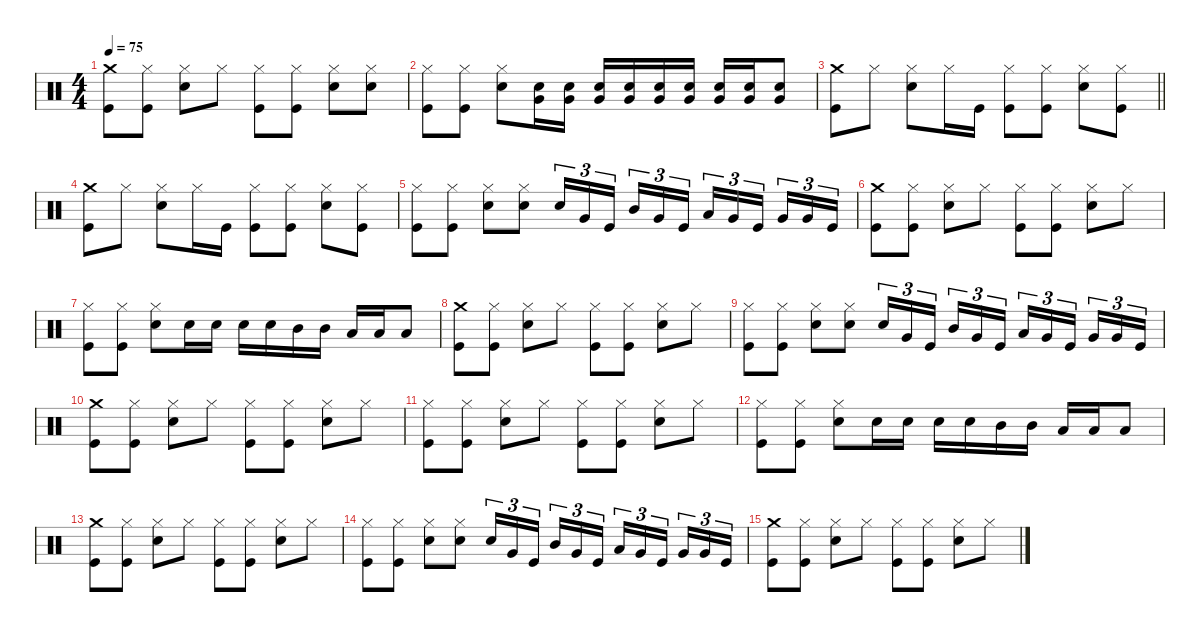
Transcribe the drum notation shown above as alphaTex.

\defaultSystemsLayout 4
\hideDynamics
\bracketExtendMode nobrackets
\singleTrackTrackNamePolicy hidden
\multiTrackTrackNamePolicy hidden
\otherSystemsTrackNameOrientation horizontal
\track ("John Bonham (Bateria)" "drm.") {instrument percussion}
\staff {score}
\articulation defaults
\ts (4 4)
\tempo 75
\clef neutral
\ks c
("Crash medium (hit)" "Kick (hit)").8{dy fff beam Down} ("Hi-Hat (closed)" "Kick (hit)").8{beam Down} ("Hi-Hat (closed)" "Snare (hit) 2").8{beam Down} "Hi-Hat (closed)".8{beam Down} ("Hi-Hat (closed)" "Kick (hit)").8{beam Down} ("Hi-Hat (closed)" "Kick (hit)").8{beam Down} ("Hi-Hat (closed)" "Snare (hit) 2").8{beam Down} ("Hi-Hat (closed)" "Snare (hit) 2").8{beam Down} |
("Hi-Hat (closed)" "Kick (hit)").8{beam Down} ("Hi-Hat (closed)" "Kick (hit)").8{beam Down} ("Hi-Hat (closed)" "Snare (hit) 2").8{beam Down} ("Snare (hit) 2" "Very Low Tom (hit)").16{beam Down} ("Snare (hit) 2" "Very Low Tom (hit)").16{beam Down} ("Snare (hit) 2" "Very Low Tom (hit)").16{beam Up} ("Snare (hit) 2" "Very Low Tom (hit)").16{beam Up} ("Snare (hit) 2" "Very Low Tom (hit)").16{beam Up} ("Snare (hit) 2" "Very Low Tom (hit)").16{beam Up} ("Snare (hit) 2" "Very Low Tom (hit)").16{beam Up} ("Snare (hit) 2" "Very Low Tom (hit)").16{beam Up} ("Snare (hit) 2" "Very Low Tom (hit)").8{beam Up} |
\barLineRight lightlight
("Crash medium (hit)" "Kick (hit)").8{beam Down} "Hi-Hat (closed)".8{beam Down} ("Hi-Hat (closed)" "Snare (hit) 2").8{beam Down} "Hi-Hat (closed)".16{beam Down} "Kick (hit)".16{beam Down} ("Hi-Hat (closed)" "Kick (hit)").8{beam Down} ("Hi-Hat (closed)" "Kick (hit)").8{beam Down} ("Hi-Hat (closed)" "Snare (hit) 2").8{beam Down} ("Hi-Hat (closed)" "Kick (hit)").8{beam Down} |
("Crash medium (hit)" "Kick (hit)").8{beam Down} "Hi-Hat (closed)".8{beam Down} ("Hi-Hat (closed)" "Snare (hit) 2").8{beam Down} "Hi-Hat (closed)".16{beam Down} "Kick (hit)".16{beam Down} ("Hi-Hat (closed)" "Kick (hit)").8{beam Down} ("Hi-Hat (closed)" "Kick (hit)").8{beam Down} ("Hi-Hat (closed)" "Snare (hit) 2").8{beam Down} ("Hi-Hat (closed)" "Kick (hit)").8{beam Down} |
("Hi-Hat (closed)" "Kick (hit)").8{beam Down} ("Hi-Hat (closed)" "Kick (hit)").8{beam Down} ("Hi-Hat (closed)" "Snare (hit) 2").8{beam Down} ("Hi-Hat (closed)" "Snare (hit) 2").8{beam Down} "Snare (hit) 2".16{tu (3 2) beam Up} "Very Low Tom (hit)".16{tu (3 2) beam Up} "Kick (hit)".16{tu (3 2) beam Up} "Mid Tom (hit)".16{tu (3 2) beam Up} "Very Low Tom (hit)".16{tu (3 2) beam Up} "Kick (hit)".16{tu (3 2) beam Up} "Low Tom (hit)".16{tu (3 2) beam Up} "Very Low Tom (hit)".16{tu (3 2) beam Up} "Kick (hit)".16{tu (3 2) beam Up} "Very Low Tom (hit)".16{tu (3 2) beam Up} "Very Low Tom (hit)".16{tu (3 2) beam Up} "Kick (hit)".16{tu (3 2) beam Up} |
("Crash medium (hit)" "Kick (hit)").8{beam Down} ("Hi-Hat (closed)" "Kick (hit)").8{beam Down} ("Hi-Hat (closed)" "Snare (hit) 2").8{beam Down} "Hi-Hat (closed)".8{beam Down} ("Hi-Hat (closed)" "Kick (hit)").8{beam Down} ("Hi-Hat (closed)" "Kick (hit)").8{beam Down} ("Hi-Hat (closed)" "Snare (hit) 2").8{beam Down} "Hi-Hat (closed)".8{beam Down} |
("Hi-Hat (closed)" "Kick (hit)").8{beam Down} ("Hi-Hat (closed)" "Kick (hit)").8{beam Down} ("Hi-Hat (closed)" "Snare (hit) 2").8{beam Down} "Snare (hit) 2".16{beam Down} "Snare (hit) 2".16{beam Down} "Snare (hit) 2".16{beam Down} "Snare (hit) 2".16{beam Down} "Mid Tom (hit)".16{beam Down} "Mid Tom (hit)".16{beam Down} "Low Tom (hit)".16{beam Up} "Low Tom (hit)".16{beam Up} "Low Tom (hit)".8{beam Up} |
("Crash medium (hit)" "Kick (hit)").8{beam Down} ("Hi-Hat (closed)" "Kick (hit)").8{beam Down} ("Hi-Hat (closed)" "Snare (hit) 2").8{beam Down} "Hi-Hat (closed)".8{beam Down} ("Hi-Hat (closed)" "Kick (hit)").8{beam Down} ("Hi-Hat (closed)" "Kick (hit)").8{beam Down} ("Hi-Hat (closed)" "Snare (hit) 2").8{beam Down} "Hi-Hat (closed)".8{beam Down} |
("Hi-Hat (closed)" "Kick (hit)").8{beam Down} ("Hi-Hat (closed)" "Kick (hit)").8{beam Down} ("Hi-Hat (closed)" "Snare (hit) 2").8{beam Down} ("Hi-Hat (closed)" "Snare (hit) 2").8{beam Down} "Snare (hit) 2".16{tu (3 2) beam Up} "Very Low Tom (hit)".16{tu (3 2) beam Up} "Kick (hit)".16{tu (3 2) beam Up} "Mid Tom (hit)".16{tu (3 2) beam Up} "Very Low Tom (hit)".16{tu (3 2) beam Up} "Kick (hit)".16{tu (3 2) beam Up} "Low Tom (hit)".16{tu (3 2) beam Up} "Very Low Tom (hit)".16{tu (3 2) beam Up} "Kick (hit)".16{tu (3 2) beam Up} "Very Low Tom (hit)".16{tu (3 2) beam Up} "Very Low Tom (hit)".16{tu (3 2) beam Up} "Kick (hit)".16{tu (3 2) beam Up} |
("Crash medium (hit)" "Kick (hit)").8{beam Down} ("Hi-Hat (closed)" "Kick (hit)").8{beam Down} ("Hi-Hat (closed)" "Snare (hit) 2").8{beam Down} "Hi-Hat (closed)".8{beam Down} ("Hi-Hat (closed)" "Kick (hit)").8{beam Down} ("Hi-Hat (closed)" "Kick (hit)").8{beam Down} ("Hi-Hat (closed)" "Snare (hit) 2").8{beam Down} "Hi-Hat (closed)".8{beam Down} |
("Hi-Hat (closed)" "Kick (hit)").8{dy f beam Down} ("Hi-Hat (closed)" "Kick (hit)").8{dy fff beam Down} ("Hi-Hat (closed)" "Snare (hit) 2").8{beam Down} "Hi-Hat (closed)".8{beam Down} ("Hi-Hat (closed)" "Kick (hit)").8{beam Down} ("Hi-Hat (closed)" "Kick (hit)").8{beam Down} ("Hi-Hat (closed)" "Snare (hit) 2").8{beam Down} "Hi-Hat (closed)".8{beam Down} |
("Hi-Hat (closed)" "Kick (hit)").8{beam Down} ("Hi-Hat (closed)" "Kick (hit)").8{beam Down} ("Hi-Hat (closed)" "Snare (hit) 2").8{beam Down} "Snare (hit) 2".16{beam Down} "Snare (hit) 2".16{beam Down} "Snare (hit) 2".16{beam Down} "Snare (hit) 2".16{beam Down} "Mid Tom (hit)".16{beam Down} "Mid Tom (hit)".16{beam Down} "Low Tom (hit)".16{beam Up} "Low Tom (hit)".16{beam Up} "Low Tom (hit)".8{beam Up} |
("Crash medium (hit)" "Kick (hit)").8{beam Down} ("Hi-Hat (closed)" "Kick (hit)").8{beam Down} ("Hi-Hat (closed)" "Snare (hit) 2").8{beam Down} "Hi-Hat (closed)".8{beam Down} ("Hi-Hat (closed)" "Kick (hit)").8{beam Down} ("Hi-Hat (closed)" "Kick (hit)").8{beam Down} ("Hi-Hat (closed)" "Snare (hit) 2").8{beam Down} "Hi-Hat (closed)".8{beam Down} |
("Hi-Hat (closed)" "Kick (hit)").8{beam Down} ("Hi-Hat (closed)" "Kick (hit)").8{beam Down} ("Hi-Hat (closed)" "Snare (hit) 2").8{beam Down} ("Hi-Hat (closed)" "Snare (hit) 2").8{beam Down} "Snare (hit) 2".16{tu (3 2) beam Up} "Very Low Tom (hit)".16{tu (3 2) beam Up} "Kick (hit)".16{tu (3 2) beam Up} "Mid Tom (hit)".16{tu (3 2) beam Up} "Very Low Tom (hit)".16{tu (3 2) beam Up} "Kick (hit)".16{tu (3 2) beam Up} "Low Tom (hit)".16{tu (3 2) beam Up} "Very Low Tom (hit)".16{tu (3 2) beam Up} "Kick (hit)".16{tu (3 2) beam Up} "Very Low Tom (hit)".16{tu (3 2) beam Up} "Very Low Tom (hit)".16{tu (3 2) beam Up} "Kick (hit)".16{tu (3 2) beam Up} |
("Crash medium (hit)" "Kick (hit)").8{beam Down} ("Hi-Hat (closed)" "Kick (hit)").8{beam Down} ("Hi-Hat (closed)" "Snare (hit) 2").8{beam Down} "Hi-Hat (closed)".8{beam Down} ("Hi-Hat (closed)" "Kick (hit)").8{beam Down} ("Hi-Hat (closed)" "Kick (hit)").8{beam Down} ("Hi-Hat (closed)" "Snare (hit) 2").8{beam Down} "Hi-Hat (closed)".8{beam Down}
